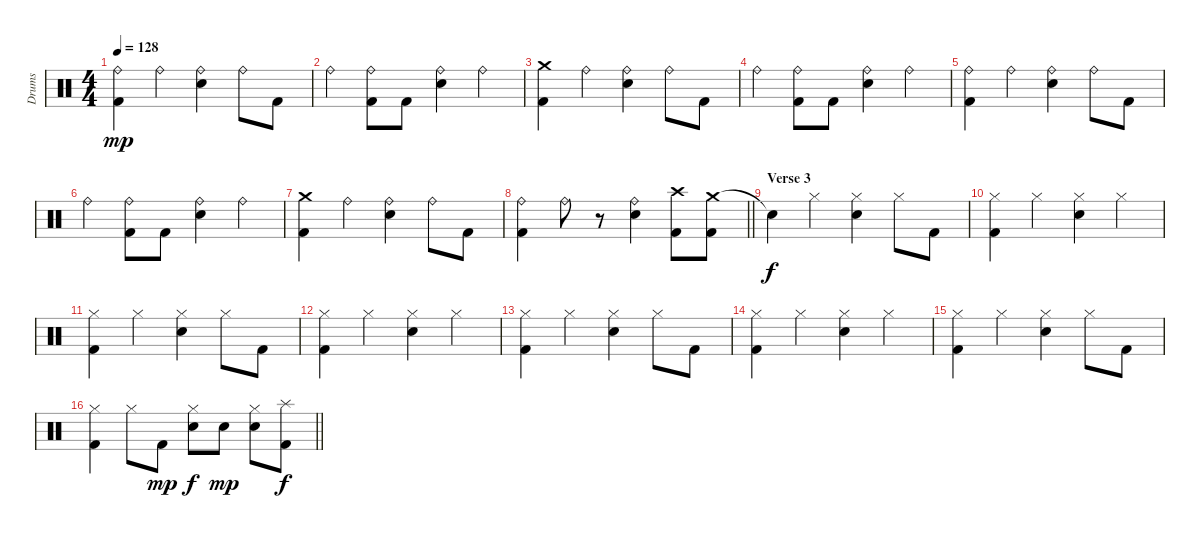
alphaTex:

\track ("Drums" "Drums") {instrument percussion}
\staff {score}
\articulation defaults
\ts (4 4)
\tempo 128
\clef neutral
\ks c
("Ride (bell)" "Kick (hit) 2").4{dy mp} "Ride (bell)".4 ("Ride (bell)" "Snare (hit) 2").4 "Ride (bell)".8 "Kick (hit) 2".8 |
"Ride (bell)".4 ("Ride (bell)" "Kick (hit) 2").8 "Kick (hit) 2".8 ("Ride (bell)" "Snare (hit) 2").4 "Ride (bell)".4 |
("Crash medium (hit)" "Kick (hit) 2").4 "Ride (bell)".4 ("Ride (bell)" "Snare (hit) 2").4 "Ride (bell)".8 "Kick (hit) 2".8 |
"Ride (bell)".4 ("Ride (bell)" "Kick (hit) 2").8 "Kick (hit) 2".8 ("Ride (bell)" "Snare (hit) 2").4 "Ride (bell)".4 |
("Ride (bell)" "Kick (hit) 2").4 "Ride (bell)".4 ("Ride (bell)" "Snare (hit) 2").4 "Ride (bell)".8 "Kick (hit) 2".8 |
"Ride (bell)".4 ("Ride (bell)" "Kick (hit) 2").8 "Kick (hit) 2".8 ("Ride (bell)" "Snare (hit) 2").4 "Ride (bell)".4 |
("Crash medium (hit)" "Kick (hit) 2").4 "Ride (bell)".4 ("Ride (bell)" "Snare (hit) 2").4 "Ride (bell)".8 "Kick (hit) 2".8 |
\barLineRight lightlight
("Ride (bell)" "Kick (hit) 2").4 "Ride (bell)".8 r.8 ("Ride (bell)" "Snare (hit) 2").4 ("Crash high (hit)" "Kick (hit) 2").8 ("Crash medium (hit)" "Kick (hit) 2").8 |
\section ("" "Verse 3")
"Snare (hit)"{t}.4{dy f} "Hi-Hat (closed)".4 ("Hi-Hat (closed)" "Snare (hit) 2").4 "Hi-Hat (closed)".8 "Kick (hit) 2".8 |
("Hi-Hat (closed)" "Kick (hit) 2").4 "Hi-Hat (closed)".4 ("Hi-Hat (closed)" "Snare (hit) 2").4 "Hi-Hat (closed)".4 |
("Hi-Hat (closed)" "Kick (hit) 2").4 "Hi-Hat (closed)".4 ("Hi-Hat (closed)" "Snare (hit) 2").4 "Hi-Hat (closed)".8 "Kick (hit) 2".8 |
("Hi-Hat (closed)" "Kick (hit) 2").4 "Hi-Hat (closed)".4 ("Hi-Hat (closed)" "Snare (hit) 2").4 "Hi-Hat (closed)".4 |
("Hi-Hat (closed)" "Kick (hit) 2").4 "Hi-Hat (closed)".4 ("Hi-Hat (closed)" "Snare (hit) 2").4 "Hi-Hat (closed)".8 "Kick (hit) 2".8 |
("Hi-Hat (closed)" "Kick (hit) 2").4 "Hi-Hat (closed)".4 ("Hi-Hat (closed)" "Snare (hit) 2").4 "Hi-Hat (closed)".4 |
("Hi-Hat (closed)" "Kick (hit) 2").4 "Hi-Hat (closed)".4 ("Hi-Hat (closed)" "Snare (hit) 2").4 "Hi-Hat (closed)".8 "Kick (hit) 2".8 |
\barLineRight lightlight
("Hi-Hat (closed)" "Kick (hit) 2").4 "Hi-Hat (closed)".8 "Kick (hit) 2".8{dy mp} ("Hi-Hat (closed)" "Snare (hit) 2").8{dy f} "Snare (hit) 2".8{dy mp} ("Hi-Hat (closed)" "Snare (hit) 2").8 ("Splash (hit)" "Kick (hit) 2").8{dy f}
